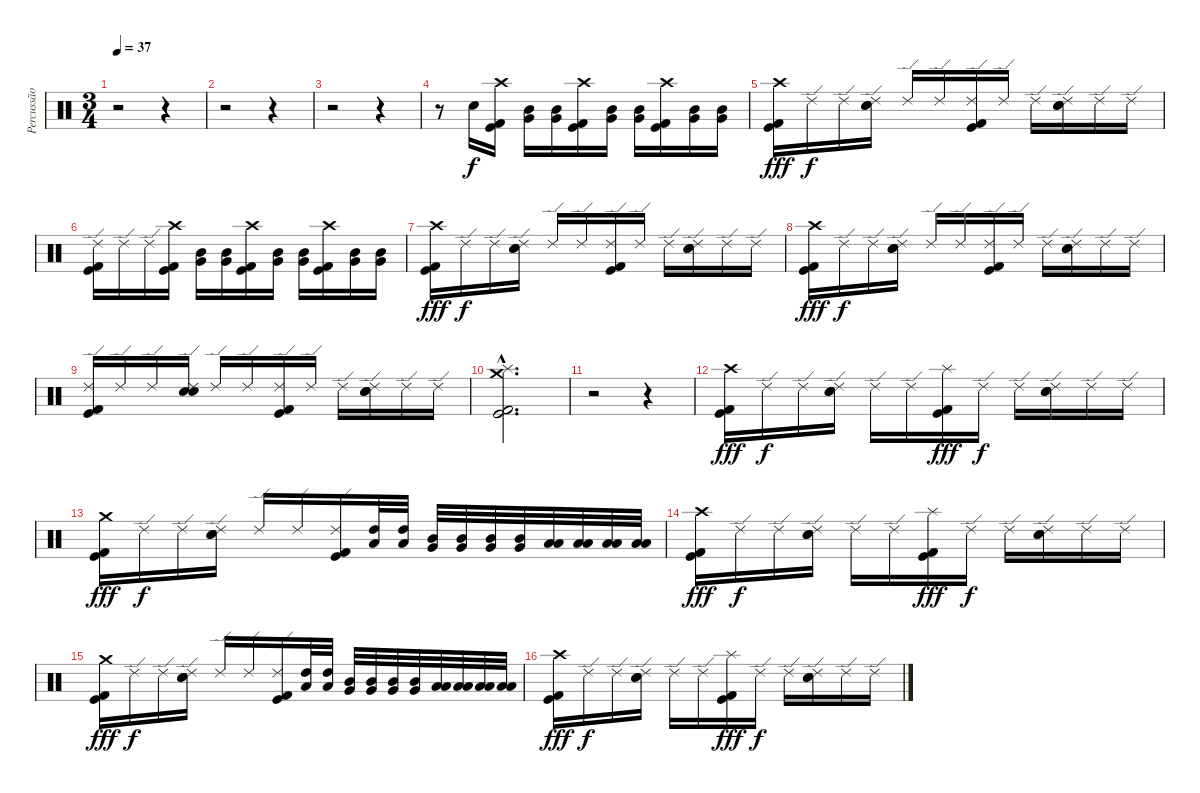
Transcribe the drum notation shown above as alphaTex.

\track ("Percussão" "Percussão") {instrument percussion}
\staff {score}
\articulation defaults
\ts (3 4)
\tempo 37
\clef neutral
\ks c
r.2{dy fff} r.4 |
r.2 r.4 |
r.2 r.4 |
r.8 "Snare (hit)"{x}.16{dy f} ("Crash high (hit)" "Kick (hit) 2" "Kick (hit)").16 ("Mid Tom (hit)" "Very Low Tom (hit)").16 ("Mid Tom (hit)" "Very Low Tom (hit)").16 ("Crash high (hit)" "Kick (hit) 2" "Kick (hit)").16 ("Mid Tom (hit)" "Very Low Tom (hit)").16 ("Mid Tom (hit)" "Very Low Tom (hit)").16 ("Crash high (hit)" "Kick (hit) 2" "Kick (hit)").16 ("Mid Tom (hit)" "Very Low Tom (hit)").16 ("Mid Tom (hit)" "Very Low Tom (hit)").16 |
("Crash high (hit)" "Kick (hit) 2" "Kick (hit)").16{dy fff} "Ride (edge) 2".16{dy f} "Ride (edge) 2".16 ("Ride (edge) 2" "Electric Snare (hit)" "Snare (hit) 2").16 "Ride (edge) 2".16 "Ride (edge) 2".16 ("Ride (edge) 2" "Kick (hit) 2" "Kick (hit)").16 "Ride (edge) 2".16 "Ride (edge) 2".16 ("Ride (edge) 2" "Electric Snare (hit)" "Snare (hit) 2").16 "Ride (edge) 2".16 "Ride (edge) 2".16 |
("Ride (edge) 2" "Kick (hit) 2" "Kick (hit)").16 "Ride (edge) 2".16 "Ride (edge) 2".16 ("Crash high (hit)" "Kick (hit) 2" "Kick (hit)").16 ("Mid Tom (hit)" "Very Low Tom (hit)").16 ("Mid Tom (hit)" "Very Low Tom (hit)").16 ("Crash high (hit)" "Kick (hit) 2" "Kick (hit)").16 ("Mid Tom (hit)" "Very Low Tom (hit)").16 ("Mid Tom (hit)" "Very Low Tom (hit)").16 ("Crash high (hit)" "Kick (hit) 2" "Kick (hit)").16 ("Mid Tom (hit)" "Very Low Tom (hit)").16 ("Mid Tom (hit)" "Very Low Tom (hit)").16 |
("Crash high (hit)" "Kick (hit) 2" "Kick (hit)").16{dy fff} "Ride (edge) 2".16{dy f} "Ride (edge) 2".16 ("Ride (edge) 2" "Electric Snare (hit)" "Snare (hit) 2").16 "Ride (edge) 2".16 "Ride (edge) 2".16 ("Ride (edge) 2" "Kick (hit) 2" "Kick (hit)").16 "Ride (edge) 2".16 "Ride (edge) 2".16 ("Ride (edge) 2" "Electric Snare (hit)" "Snare (hit) 2").16 "Ride (edge) 2".16 "Ride (edge) 2".16 |
("Crash high (hit)" "Kick (hit) 2" "Kick (hit)").16{dy fff} "Ride (edge) 2".16{dy f} "Ride (edge) 2".16 ("Ride (edge) 2" "Electric Snare (hit)" "Snare (hit) 2").16 "Ride (edge) 2".16 "Ride (edge) 2".16 ("Ride (edge) 2" "Kick (hit) 2" "Kick (hit)").16 "Ride (edge) 2".16 "Ride (edge) 2".16 ("Ride (edge) 2" "Electric Snare (hit)" "Snare (hit) 2").16 "Ride (edge) 2".16 "Ride (edge) 2".16 |
("Ride (edge) 2" "Kick (hit) 2" "Kick (hit)").16 "Ride (edge) 2".16 "Ride (edge) 2".16 ("Ride (edge) 2" "Electric Snare (hit)" "Snare (hit) 2").16 "Ride (edge) 2".16 "Ride (edge) 2".16 ("Ride (edge) 2" "Kick (hit) 2" "Kick (hit)").16 "Ride (edge) 2".16 "Ride (edge) 2".16 ("Ride (edge) 2" "Electric Snare (hit)" "Snare (hit) 2").16 "Ride (edge) 2".16 "Ride (edge) 2".16 |
("Crash medium (hit)"{hac} "Splash (hit)"{hac} "Kick (hit) 2"{hac} "Kick (hit)"{hac}).2{d} |
r.2 r.4 |
("Crash high (hit)" "Kick (hit) 2" "Kick (hit)").16{dy fff} "Ride (edge) 2".16{dy f} "Ride (edge) 2".16 ("Ride (edge) 2" "Electric Snare (hit)" "Snare (hit) 2").16 "Ride (edge) 2".16 "Ride (edge) 2".16 ("Splash (hit)" "Kick (hit) 2" "Kick (hit)").16{dy fff} "Ride (edge) 2".16{dy f} "Ride (edge) 2".16 ("Ride (edge) 2" "Electric Snare (hit)" "Snare (hit) 2").16 "Ride (edge) 2".16 "Ride (edge) 2".16 |
("Crash medium (hit)" "Kick (hit) 2" "Kick (hit)").16{dy fff} "Ride (edge) 2".16{dy f} "Ride (edge) 2".16 ("Ride (edge) 2" "Electric Snare (hit)" "Snare (hit) 2").16 "Ride (edge) 2".16 "Ride (edge) 2".16 ("Ride (edge) 2" "Kick (hit) 2" "Kick (hit)").16 ("High Tom (hit)" "Low Tom (hit)").32 ("High Tom (hit)" "Low Tom (hit)").32 ("Mid Tom (hit)" "Very Low Tom (hit)").32 ("Mid Tom (hit)" "Very Low Tom (hit)").32 ("Mid Tom (hit)" "Very Low Tom (hit)").32 ("Mid Tom (hit)" "Very Low Tom (hit)").32 ("Low Tom (hit)" "Low Floor Tom (hit)").32 ("Low Tom (hit)" "Low Floor Tom (hit)").32 ("Low Tom (hit)" "Low Floor Tom (hit)").32 ("Low Tom (hit)" "Low Floor Tom (hit)").32 |
("Crash high (hit)" "Kick (hit) 2" "Kick (hit)").16{dy fff} "Ride (edge) 2".16{dy f} "Ride (edge) 2".16 ("Ride (edge) 2" "Electric Snare (hit)" "Snare (hit) 2").16 "Ride (edge) 2".16 "Ride (edge) 2".16 ("Splash (hit)" "Kick (hit) 2" "Kick (hit)").16{dy fff} "Ride (edge) 2".16{dy f} "Ride (edge) 2".16 ("Ride (edge) 2" "Electric Snare (hit)" "Snare (hit) 2").16 "Ride (edge) 2".16 "Ride (edge) 2".16 |
("Crash medium (hit)" "Kick (hit) 2" "Kick (hit)").16{dy fff} "Ride (edge) 2".16{dy f} "Ride (edge) 2".16 ("Ride (edge) 2" "Electric Snare (hit)" "Snare (hit) 2").16 "Ride (edge) 2".16 "Ride (edge) 2".16 ("Ride (edge) 2" "Kick (hit) 2" "Kick (hit)").16 ("High Tom (hit)" "Low Tom (hit)").32 ("High Tom (hit)" "Low Tom (hit)").32 ("Mid Tom (hit)" "Very Low Tom (hit)").32 ("Mid Tom (hit)" "Very Low Tom (hit)").32 ("Mid Tom (hit)" "Very Low Tom (hit)").32 ("Mid Tom (hit)" "Very Low Tom (hit)").32 ("Low Tom (hit)" "Low Floor Tom (hit)").32 ("Low Tom (hit)" "Low Floor Tom (hit)").32 ("Low Tom (hit)" "Low Floor Tom (hit)").32 ("Low Tom (hit)" "Low Floor Tom (hit)").32 |
("Crash high (hit)" "Kick (hit) 2" "Kick (hit)").16{dy fff} "Ride (edge) 2".16{dy f} "Ride (edge) 2".16 ("Ride (edge) 2" "Electric Snare (hit)" "Snare (hit) 2").16 "Ride (edge) 2".16 "Ride (edge) 2".16 ("Splash (hit)" "Kick (hit) 2" "Kick (hit)").16{dy fff} "Ride (edge) 2".16{dy f} "Ride (edge) 2".16 ("Ride (edge) 2" "Electric Snare (hit)" "Snare (hit) 2").16 "Ride (edge) 2".16 "Ride (edge) 2".16
